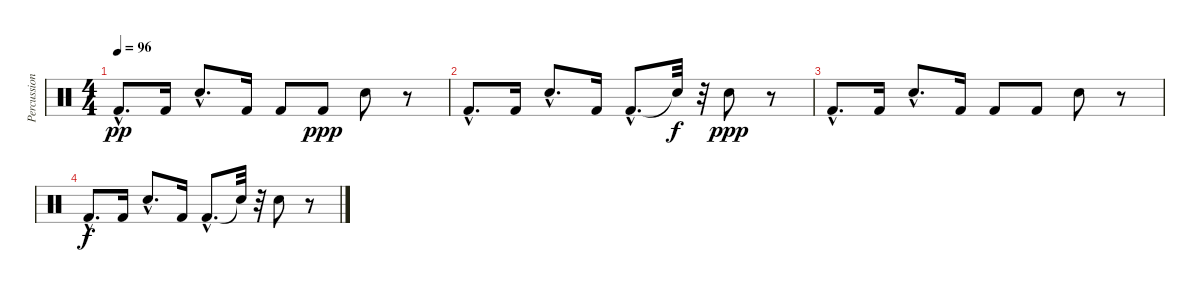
\track ("Percussion" "Percussion") {instrument percussion}
\staff {score}
\articulation defaults
\ts (4 4)
\tempo 96
\clef neutral
\ks c "Kick (hit) 2"{hac}.8{d dy pp} "Kick (hit) 2".16 "Electric Snare (hit)"{hac}.8{d} "Kick (hit) 2".16 "Kick (hit) 2".8 "Kick (hit) 2".8{dy ppp} "Electric Snare (hit)".8
r.8 |
"Kick (hit) 2"{hac}.8{d} "Kick (hit) 2".16 "Electric Snare (hit)"{hac}.8{d} "Kick (hit) 2".16 "Kick (hit) 2"{hac}.8{d} "Snare (hit)"{t}.32{dy f} r.32 "Electric Snare (hit)".8{dy ppp} r.8 |
"Kick (hit) 2"{hac}.8{d} "Kick (hit) 2".16 "Electric Snare (hit)"{hac}.8{d} "Kick (hit) 2".16 "Kick (hit) 2".8 "Kick (hit) 2".8 "Electric Snare (hit)".8 r.8 |
"Kick (hit) 2"{hac}.8{d dy f} "Kick (hit) 2".16 "Electric Snare (hit)"{hac}.8{d} "Kick (hit) 2".16 "Kick (hit) 2"{hac}.8{d} "Snare (hit)"{t}.32 r.32 "Electric Snare (hit)".8 r.8
